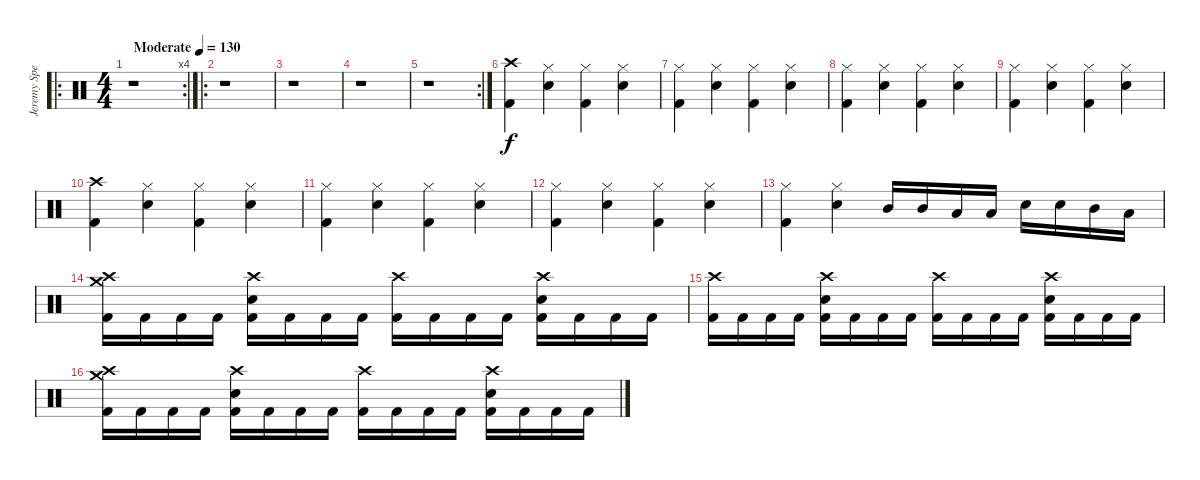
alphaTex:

\track ("Jeremy Spencer" "Jeremy Spe") {instrument percussion}
\staff {score}
\articulation defaults
\ro
\rc 4
\ts (4 4)
\tempo (130 "Moderate")
\clef neutral
\ks c
r.1{dy f} |
\ro
r.1 |
r.1 |
r.1 |
\rc 2
r.1 |
("Crash high (hit)" "Kick (hit) 2").4 ("Hi-Hat (closed)" "Snare (hit) 2").4 ("Hi-Hat (closed)" "Kick (hit) 2").4 ("Hi-Hat (closed)" "Snare (hit) 2").4 |
("Hi-Hat (closed)" "Kick (hit) 2").4 ("Hi-Hat (closed)" "Snare (hit) 2").4 ("Hi-Hat (closed)" "Kick (hit) 2").4 ("Hi-Hat (closed)" "Snare (hit) 2").4 |
("Hi-Hat (closed)" "Kick (hit) 2").4 ("Hi-Hat (closed)" "Snare (hit) 2").4 ("Hi-Hat (closed)" "Kick (hit) 2").4 ("Hi-Hat (closed)" "Snare (hit) 2").4 |
("Hi-Hat (closed)" "Kick (hit) 2").4 ("Hi-Hat (closed)" "Snare (hit) 2").4 ("Hi-Hat (closed)" "Kick (hit) 2").4 ("Hi-Hat (closed)" "Snare (hit) 2").4 |
("Crash high (hit)" "Kick (hit) 2").4 ("Hi-Hat (closed)" "Snare (hit) 2").4 ("Hi-Hat (closed)" "Kick (hit) 2").4 ("Hi-Hat (closed)" "Snare (hit) 2").4 |
("Hi-Hat (closed)" "Kick (hit) 2").4 ("Hi-Hat (closed)" "Snare (hit) 2").4 ("Hi-Hat (closed)" "Kick (hit) 2").4 ("Hi-Hat (closed)" "Snare (hit) 2").4 |
("Hi-Hat (closed)" "Kick (hit) 2").4 ("Hi-Hat (closed)" "Snare (hit) 2").4 ("Hi-Hat (closed)" "Kick (hit) 2").4 ("Hi-Hat (closed)" "Snare (hit) 2").4 |
("Hi-Hat (closed)" "Kick (hit) 2").4 ("Hi-Hat (closed)" "Snare (hit) 2").4 "Mid Tom (hit)".16 "Mid Tom (hit)".16 "Low Tom (hit)".16 "Low Tom (hit)".16 "Snare (hit) 2".16 "Snare (hit) 2".16 "Mid Tom (hit)".16 "Low Tom (hit)".16 |
("Crash high (hit)" "Crash medium (hit)" "Kick (hit) 2").16 "Kick (hit) 2".16 "Kick (hit) 2".16 "Kick (hit) 2".16 ("Crash high (hit)" "Snare (hit) 2" "Kick (hit) 2").16 "Kick (hit) 2".16 "Kick (hit) 2".16 "Kick (hit) 2".16 ("Crash high (hit)" "Kick (hit) 2").16 "Kick (hit) 2".16 "Kick (hit) 2".16 "Kick (hit) 2".16 ("Crash high (hit)" "Snare (hit) 2" "Kick (hit) 2").16 "Kick (hit) 2".16 "Kick (hit) 2".16 "Kick (hit) 2".16 |
("Crash high (hit)" "Kick (hit) 2").16 "Kick (hit) 2".16 "Kick (hit) 2".16 "Kick (hit) 2".16 ("Crash high (hit)" "Snare (hit) 2" "Kick (hit) 2").16 "Kick (hit) 2".16 "Kick (hit) 2".16 "Kick (hit) 2".16 ("Crash high (hit)" "Kick (hit) 2").16 "Kick (hit) 2".16 "Kick (hit) 2".16 "Kick (hit) 2".16 ("Crash high (hit)" "Snare (hit) 2" "Kick (hit) 2").16 "Kick (hit) 2".16 "Kick (hit) 2".16 "Kick (hit) 2".16 |
("Crash high (hit)" "Crash medium (hit)" "Kick (hit) 2").16 "Kick (hit) 2".16 "Kick (hit) 2".16 "Kick (hit) 2".16 ("Crash high (hit)" "Snare (hit) 2" "Kick (hit) 2").16 "Kick (hit) 2".16 "Kick (hit) 2".16 "Kick (hit) 2".16 ("Crash high (hit)" "Kick (hit) 2").16 "Kick (hit) 2".16 "Kick (hit) 2".16 "Kick (hit) 2".16 ("Crash high (hit)" "Snare (hit) 2" "Kick (hit) 2").16 "Kick (hit) 2".16 "Kick (hit) 2".16 "Kick (hit) 2".16
